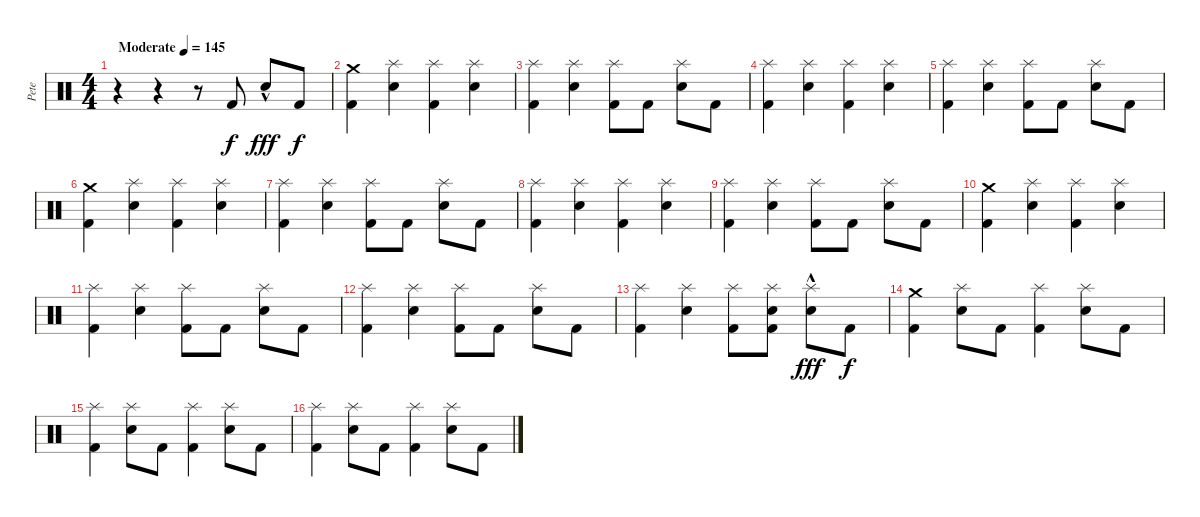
\track ("Pete" "Pete") {instrument percussion}
\staff {score}
\articulation defaults
\ts (4 4)
\tempo (145 "Moderate")
\clef neutral
\ks c
r.4{dy f} r.4 r.8 "Kick (hit) 2".8 "Electric Snare (hit)"{hac}.8{dy fff} "Kick (hit) 2".8{dy f} |
("Crash medium (hit)" "Kick (hit) 2").4 ("Splash (hit)" "Electric Snare (hit)").4 ("Splash (hit)" "Kick (hit) 2").4 ("Splash (hit)" "Electric Snare (hit)").4 |
("Splash (hit)" "Kick (hit) 2").4 ("Splash (hit)" "Electric Snare (hit)").4 ("Splash (hit)" "Kick (hit) 2").8 "Kick (hit) 2".8 ("Splash (hit)" "Electric Snare (hit)").8 "Kick (hit) 2".8 |
("Splash (hit)" "Kick (hit) 2").4 ("Splash (hit)" "Electric Snare (hit)").4 ("Splash (hit)" "Kick (hit) 2").4 ("Splash (hit)" "Electric Snare (hit)").4 |
("Splash (hit)" "Kick (hit) 2").4 ("Splash (hit)" "Electric Snare (hit)").4 ("Splash (hit)" "Kick (hit) 2").8 "Kick (hit) 2".8 ("Splash (hit)" "Electric Snare (hit)").8 "Kick (hit) 2".8 |
("Crash medium (hit)" "Kick (hit) 2").4 ("Splash (hit)" "Electric Snare (hit)").4 ("Splash (hit)" "Kick (hit) 2").4 ("Splash (hit)" "Electric Snare (hit)").4 |
("Splash (hit)" "Kick (hit) 2").4 ("Splash (hit)" "Electric Snare (hit)").4 ("Splash (hit)" "Kick (hit) 2").8 "Kick (hit) 2".8 ("Splash (hit)" "Electric Snare (hit)").8 "Kick (hit) 2".8 |
("Splash (hit)" "Kick (hit) 2").4 ("Splash (hit)" "Electric Snare (hit)").4 ("Splash (hit)" "Kick (hit) 2").4 ("Splash (hit)" "Electric Snare (hit)").4 |
("Splash (hit)" "Kick (hit) 2").4 ("Splash (hit)" "Electric Snare (hit)").4 ("Splash (hit)" "Kick (hit) 2").8 "Kick (hit) 2".8 ("Splash (hit)" "Electric Snare (hit)").8 "Kick (hit) 2".8 |
("Crash medium (hit)" "Kick (hit) 2").4 ("Splash (hit)" "Electric Snare (hit)").4 ("Splash (hit)" "Kick (hit) 2").4 ("Splash (hit)" "Electric Snare (hit)").4 |
("Splash (hit)" "Kick (hit) 2").4 ("Splash (hit)" "Electric Snare (hit)").4 ("Splash (hit)" "Kick (hit) 2").8 "Kick (hit) 2".8 ("Splash (hit)" "Electric Snare (hit)").8 "Kick (hit) 2".8 |
("Splash (hit)" "Kick (hit) 2").4 ("Splash (hit)" "Electric Snare (hit)").4 ("Splash (hit)" "Kick (hit) 2").8 "Kick (hit) 2".8 ("Splash (hit)" "Electric Snare (hit)").8 "Kick (hit) 2".8 |
("Splash (hit)" "Kick (hit) 2").4 ("Splash (hit)" "Electric Snare (hit)").4 ("Splash (hit)" "Kick (hit) 2").8 ("Splash (hit)" "Electric Snare (hit)" "Kick (hit) 2").8 ("Splash (hit)" "Electric Snare (hit)"{hac}).8{dy fff} "Kick (hit) 2".8{dy f} |
("Crash medium (hit)" "Kick (hit) 2").4 ("Splash (hit)" "Electric Snare (hit)").8 "Kick (hit) 2".8 ("Splash (hit)" "Kick (hit) 2").4 ("Splash (hit)" "Electric Snare (hit)").8 "Kick (hit) 2".8 |
("Splash (hit)" "Kick (hit) 2").4 ("Splash (hit)" "Electric Snare (hit)").8 "Kick (hit) 2".8 ("Splash (hit)" "Kick (hit) 2").4 ("Splash (hit)" "Electric Snare (hit)").8 "Kick (hit) 2".8 |
("Splash (hit)" "Kick (hit) 2").4 ("Splash (hit)" "Electric Snare (hit)").8 "Kick (hit) 2".8 ("Splash (hit)" "Kick (hit) 2").4 ("Splash (hit)" "Electric Snare (hit)").8 "Kick (hit) 2".8
